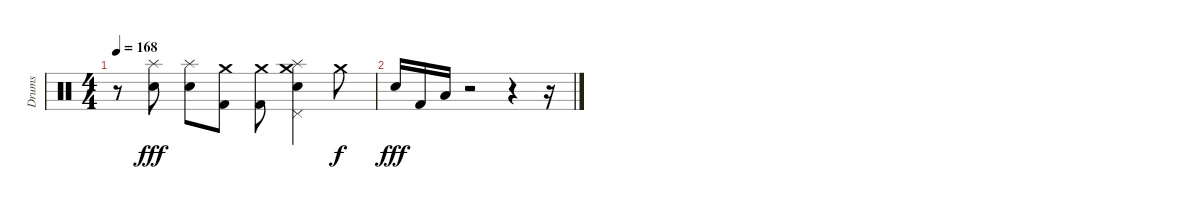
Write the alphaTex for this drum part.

\track ("Drums" "Drums") {instrument percussion}
\staff {score}
\articulation defaults
\ts (4 4)
\tempo 168
\clef neutral
\ks c
r.8{dy f} ("Splash (hit)" "Electric Snare (hit)").8{dy fff} ("Splash (hit)" "Electric Snare (hit)").8 ("Crash medium (hit)" "Kick (hit) 2").8 ("Crash medium (hit)" "Kick (hit) 2").8 ("Crash medium (hit)" "Pedal Hi-Hat (hit)" "Splash (hit)" "Electric Snare (hit)").4 "Crash medium (hit)".8{dy f} |
"Electric Snare (hit)".16{dy fff} "Kick (hit) 2".16 "Low Floor Tom (hit)".16 r.2 r.4 r.16
